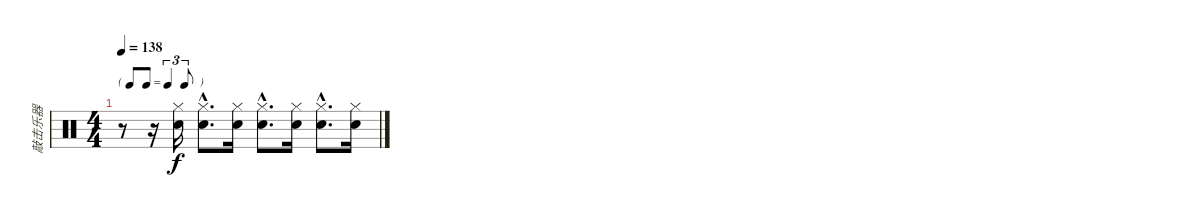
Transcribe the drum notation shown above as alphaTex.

\track ("敲击乐器" "敲击乐器") {instrument percussion}
\staff {score}
\articulation defaults
\ts (4 4)
\tf triplet8th
\tempo 138
\clef neutral
\ks c
r.8{dy f} r.16 ("Hi-Hat (closed)" "Electric Snare (hit)").16 ("Hi-Hat (closed)"{hac} "Electric Snare (hit)"{hac}).8{d} ("Hi-Hat (closed)" "Electric Snare (hit)").16 ("Hi-Hat (closed)"{hac} "Electric Snare (hit)"{hac}).8{d} ("Hi-Hat (closed)" "Electric Snare (hit)").16 ("Hi-Hat (closed)"{hac} "Electric Snare (hit)"{hac}).8{d} ("Hi-Hat (closed)" "Electric Snare (hit)").16
